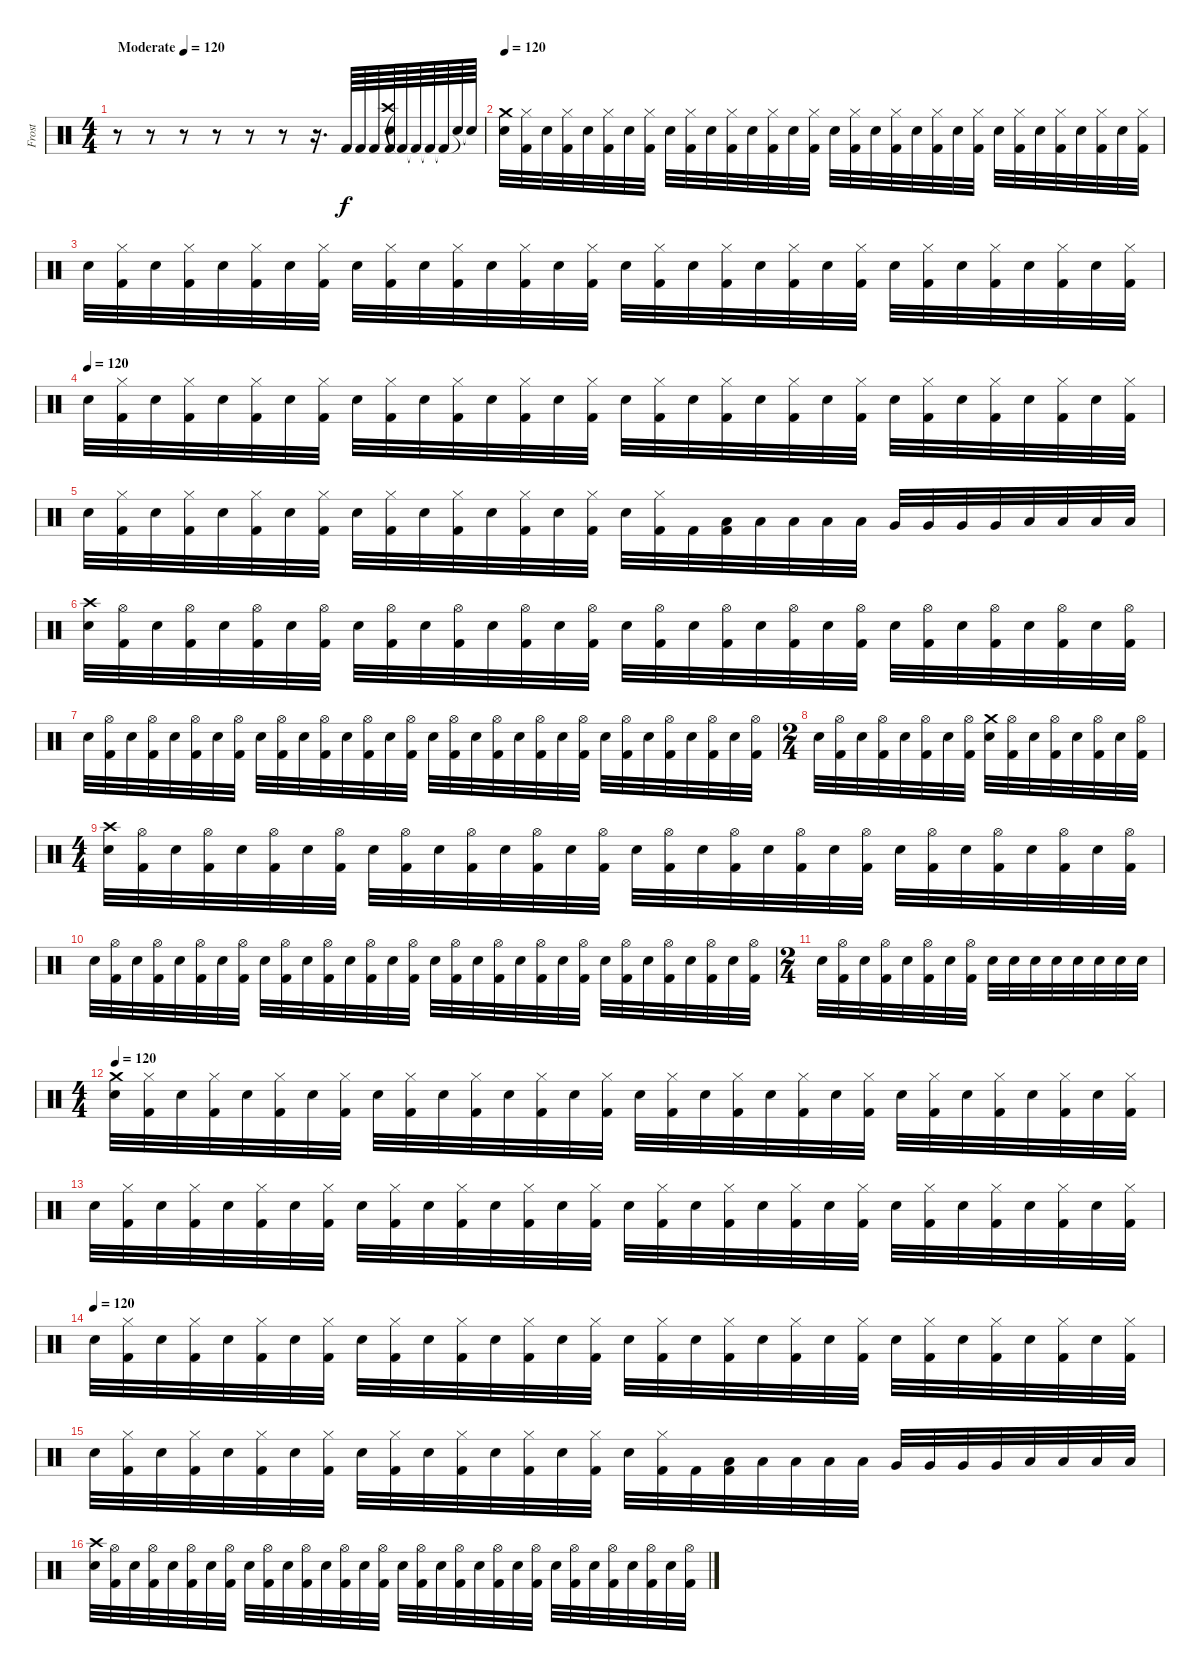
\track ("Frost" "Frost") {instrument percussion}
\staff {score}
\articulation defaults
\ts (4 4)
\tempo (120 "Moderate")
\tempo 50
\tempo (120 "Moderate")
\clef neutral
\ks c
r.8{dy f} r.8 r.8 r.8 r.8 r.8 r.16{d} "Kick (hit) 2".64 "Kick (hit) 2".64 "Kick (hit) 2".64 ("Crash high (hit)" "Snare (hit) 2" "Kick (hit) 2").64 "Kick (hit) 2"{t}.64 "Kick (hit) 2"{t}.64 "Kick (hit) 2"{t}.64 "Kick (hit) 2"{t}.64 "Snare (hit)"{t}.64 "Snare (hit)"{t}.64 |
\tempo 120
("Crash medium (hit)" "Snare (hit) 2").32 ("Hi-Hat (closed)" "Kick (hit) 2").32 "Snare (hit) 2".32 ("Hi-Hat (closed)" "Kick (hit) 2").32 "Snare (hit) 2".32 ("Hi-Hat (closed)" "Kick (hit) 2").32 "Snare (hit) 2".32 ("Hi-Hat (closed)" "Kick (hit) 2").32 "Snare (hit) 2".32 ("Hi-Hat (closed)" "Kick (hit) 2").32 "Snare (hit) 2".32 ("Hi-Hat (closed)" "Kick (hit) 2").32 "Snare (hit) 2".32 ("Hi-Hat (closed)" "Kick (hit) 2").32 "Snare (hit) 2".32 ("Hi-Hat (closed)" "Kick (hit) 2").32 "Snare (hit) 2".32 ("Hi-Hat (closed)" "Kick (hit) 2").32 "Snare (hit) 2".32 ("Hi-Hat (closed)" "Kick (hit) 2").32 "Snare (hit) 2".32 ("Hi-Hat (closed)" "Kick (hit) 2").32 "Snare (hit) 2".32 ("Hi-Hat (closed)" "Kick (hit) 2").32 "Snare (hit) 2".32 ("Hi-Hat (closed)" "Kick (hit) 2").32 "Snare (hit) 2".32 ("Hi-Hat (closed)" "Kick (hit) 2").32 "Snare (hit) 2".32 ("Hi-Hat (closed)" "Kick (hit) 2").32 "Snare (hit) 2".32 ("Hi-Hat (closed)" "Kick (hit) 2").32 |
"Snare (hit) 2".32 ("Hi-Hat (closed)" "Kick (hit) 2").32 "Snare (hit) 2".32 ("Hi-Hat (closed)" "Kick (hit) 2").32 "Snare (hit) 2".32 ("Hi-Hat (closed)" "Kick (hit) 2").32 "Snare (hit) 2".32 ("Hi-Hat (closed)" "Kick (hit) 2").32 "Snare (hit) 2".32 ("Hi-Hat (closed)" "Kick (hit) 2").32 "Snare (hit) 2".32 ("Hi-Hat (closed)" "Kick (hit) 2").32 "Snare (hit) 2".32 ("Hi-Hat (closed)" "Kick (hit) 2").32 "Snare (hit) 2".32 ("Hi-Hat (closed)" "Kick (hit) 2").32 "Snare (hit) 2".32 ("Hi-Hat (closed)" "Kick (hit) 2").32 "Snare (hit) 2".32 ("Hi-Hat (closed)" "Kick (hit) 2").32 "Snare (hit) 2".32 ("Hi-Hat (closed)" "Kick (hit) 2").32 "Snare (hit) 2".32 ("Hi-Hat (closed)" "Kick (hit) 2").32 "Snare (hit) 2".32 ("Hi-Hat (closed)" "Kick (hit) 2").32 "Snare (hit) 2".32 ("Hi-Hat (closed)" "Kick (hit) 2").32 "Snare (hit) 2".32 ("Hi-Hat (closed)" "Kick (hit) 2").32 "Snare (hit) 2".32 ("Hi-Hat (closed)" "Kick (hit) 2").32 |
\tempo (120)
"Snare (hit) 2".32 ("Hi-Hat (closed)" "Kick (hit) 2").32 "Snare (hit) 2".32 ("Hi-Hat (closed)" "Kick (hit) 2").32 "Snare (hit) 2".32 ("Hi-Hat (closed)" "Kick (hit) 2").32 "Snare (hit) 2".32 ("Hi-Hat (closed)" "Kick (hit) 2").32 "Snare (hit) 2".32 ("Hi-Hat (closed)" "Kick (hit) 2").32 "Snare (hit) 2".32 ("Hi-Hat (closed)" "Kick (hit) 2").32 "Snare (hit) 2".32 ("Hi-Hat (closed)" "Kick (hit) 2").32 "Snare (hit) 2".32 ("Hi-Hat (closed)" "Kick (hit) 2").32 "Snare (hit) 2".32 ("Hi-Hat (closed)" "Kick (hit) 2").32 "Snare (hit) 2".32 ("Hi-Hat (closed)" "Kick (hit) 2").32 "Snare (hit) 2".32 ("Hi-Hat (closed)" "Kick (hit) 2").32 "Snare (hit) 2".32 ("Hi-Hat (closed)" "Kick (hit) 2").32 "Snare (hit) 2".32 ("Hi-Hat (closed)" "Kick (hit) 2").32 "Snare (hit) 2".32 ("Hi-Hat (closed)" "Kick (hit) 2").32 "Snare (hit) 2".32 ("Hi-Hat (closed)" "Kick (hit) 2").32 "Snare (hit) 2".32 ("Hi-Hat (closed)" "Kick (hit) 2").32 |
"Snare (hit) 2".32 ("Hi-Hat (closed)" "Kick (hit) 2").32 "Snare (hit) 2".32 ("Hi-Hat (closed)" "Kick (hit) 2").32 "Snare (hit) 2".32 ("Hi-Hat (closed)" "Kick (hit) 2").32 "Snare (hit) 2".32 ("Hi-Hat (closed)" "Kick (hit) 2").32 "Snare (hit) 2".32 ("Hi-Hat (closed)" "Kick (hit) 2").32 "Snare (hit) 2".32 ("Hi-Hat (closed)" "Kick (hit) 2").32 "Snare (hit) 2".32 ("Hi-Hat (closed)" "Kick (hit) 2").32 "Snare (hit) 2".32 ("Hi-Hat (closed)" "Kick (hit) 2").32 "Snare (hit) 2".32 ("Hi-Hat (closed)" "Kick (hit) 2").32 "Kick (hit) 2".32 ("Low Tom (hit)" "Kick (hit) 2").32 "Low Tom (hit)".32 "Low Tom (hit)".32 "Low Tom (hit)".32 "Low Tom (hit)".32 "Very Low Tom (hit)".32 "Very Low Tom (hit)".32 "Very Low Tom (hit)".32 "Very Low Tom (hit)".32 "Low Floor Tom (hit)".32 "Low Floor Tom (hit)".32 "Low Floor Tom (hit)".32 "Low Floor Tom (hit)".32 |
("Crash high (hit)" "Snare (hit) 2").32 ("Hi-Hat (open)" "Kick (hit) 2").32 "Snare (hit) 2".32 ("Hi-Hat (open)" "Kick (hit) 2").32 "Snare (hit) 2".32 ("Hi-Hat (open)" "Kick (hit) 2").32 "Snare (hit) 2".32 ("Hi-Hat (open)" "Kick (hit) 2").32 "Snare (hit) 2".32 ("Hi-Hat (open)" "Kick (hit) 2").32 "Snare (hit) 2".32 ("Hi-Hat (open)" "Kick (hit) 2").32 "Snare (hit) 2".32 ("Hi-Hat (open)" "Kick (hit) 2").32 "Snare (hit) 2".32 ("Hi-Hat (open)" "Kick (hit) 2").32 "Snare (hit) 2".32 ("Hi-Hat (open)" "Kick (hit) 2").32 "Snare (hit) 2".32 ("Hi-Hat (open)" "Kick (hit) 2").32 "Snare (hit) 2".32 ("Hi-Hat (open)" "Kick (hit) 2").32 "Snare (hit) 2".32 ("Hi-Hat (open)" "Kick (hit) 2").32 "Snare (hit) 2".32 ("Hi-Hat (open)" "Kick (hit) 2").32 "Snare (hit) 2".32 ("Hi-Hat (open)" "Kick (hit) 2").32 "Snare (hit) 2".32 ("Hi-Hat (open)" "Kick (hit) 2").32 "Snare (hit) 2".32 ("Hi-Hat (open)" "Kick (hit) 2").32 |
"Snare (hit) 2".32 ("Hi-Hat (open)" "Kick (hit) 2").32 "Snare (hit) 2".32 ("Hi-Hat (open)" "Kick (hit) 2").32 "Snare (hit) 2".32 ("Hi-Hat (open)" "Kick (hit) 2").32 "Snare (hit) 2".32 ("Hi-Hat (open)" "Kick (hit) 2").32 "Snare (hit) 2".32 ("Hi-Hat (open)" "Kick (hit) 2").32 "Snare (hit) 2".32 ("Hi-Hat (open)" "Kick (hit) 2").32 "Snare (hit) 2".32 ("Hi-Hat (open)" "Kick (hit) 2").32 "Snare (hit) 2".32 ("Hi-Hat (open)" "Kick (hit) 2").32 "Snare (hit) 2".32 ("Hi-Hat (open)" "Kick (hit) 2").32 "Snare (hit) 2".32 ("Hi-Hat (open)" "Kick (hit) 2").32 "Snare (hit) 2".32 ("Hi-Hat (open)" "Kick (hit) 2").32 "Snare (hit) 2".32 ("Hi-Hat (open)" "Kick (hit) 2").32 "Snare (hit) 2".32 ("Hi-Hat (open)" "Kick (hit) 2").32 "Snare (hit) 2".32 ("Hi-Hat (open)" "Kick (hit) 2").32 "Snare (hit) 2".32 ("Hi-Hat (open)" "Kick (hit) 2").32 "Snare (hit) 2".32 ("Hi-Hat (open)" "Kick (hit) 2").32 |
\ts (2 4)
"Snare (hit) 2".32 ("Hi-Hat (open)" "Kick (hit) 2").32 "Snare (hit) 2".32 ("Hi-Hat (open)" "Kick (hit) 2").32 "Snare (hit) 2".32 ("Hi-Hat (open)" "Kick (hit) 2").32 "Snare (hit) 2".32 ("Hi-Hat (open)" "Kick (hit) 2").32 ("Crash medium (hit)" "Snare (hit) 2").32 ("Hi-Hat (open)" "Kick (hit) 2").32 "Snare (hit) 2".32 ("Hi-Hat (open)" "Kick (hit) 2").32 "Snare (hit) 2".32 ("Hi-Hat (open)" "Kick (hit) 2").32 "Snare (hit) 2".32 ("Hi-Hat (open)" "Kick (hit) 2").32 |
\ts (4 4)
("Crash high (hit)" "Snare (hit) 2").32 ("Hi-Hat (open)" "Kick (hit) 2").32 "Snare (hit) 2".32 ("Hi-Hat (open)" "Kick (hit) 2").32 "Snare (hit) 2".32 ("Hi-Hat (open)" "Kick (hit) 2").32 "Snare (hit) 2".32 ("Hi-Hat (open)" "Kick (hit) 2").32 "Snare (hit) 2".32 ("Hi-Hat (open)" "Kick (hit) 2").32 "Snare (hit) 2".32 ("Hi-Hat (open)" "Kick (hit) 2").32 "Snare (hit) 2".32 ("Hi-Hat (open)" "Kick (hit) 2").32 "Snare (hit) 2".32 ("Hi-Hat (open)" "Kick (hit) 2").32 "Snare (hit) 2".32 ("Hi-Hat (open)" "Kick (hit) 2").32 "Snare (hit) 2".32 ("Hi-Hat (open)" "Kick (hit) 2").32 "Snare (hit) 2".32 ("Hi-Hat (open)" "Kick (hit) 2").32 "Snare (hit) 2".32 ("Hi-Hat (open)" "Kick (hit) 2").32 "Snare (hit) 2".32 ("Hi-Hat (open)" "Kick (hit) 2").32 "Snare (hit) 2".32 ("Hi-Hat (open)" "Kick (hit) 2").32 "Snare (hit) 2".32 ("Hi-Hat (open)" "Kick (hit) 2").32 "Snare (hit) 2".32 ("Hi-Hat (open)" "Kick (hit) 2").32 |
"Snare (hit) 2".32 ("Hi-Hat (open)" "Kick (hit) 2").32 "Snare (hit) 2".32 ("Hi-Hat (open)" "Kick (hit) 2").32 "Snare (hit) 2".32 ("Hi-Hat (open)" "Kick (hit) 2").32 "Snare (hit) 2".32 ("Hi-Hat (open)" "Kick (hit) 2").32 "Snare (hit) 2".32 ("Hi-Hat (open)" "Kick (hit) 2").32 "Snare (hit) 2".32 ("Hi-Hat (open)" "Kick (hit) 2").32 "Snare (hit) 2".32 ("Hi-Hat (open)" "Kick (hit) 2").32 "Snare (hit) 2".32 ("Hi-Hat (open)" "Kick (hit) 2").32 "Snare (hit) 2".32 ("Hi-Hat (open)" "Kick (hit) 2").32 "Snare (hit) 2".32 ("Hi-Hat (open)" "Kick (hit) 2").32 "Snare (hit) 2".32 ("Hi-Hat (open)" "Kick (hit) 2").32 "Snare (hit) 2".32 ("Hi-Hat (open)" "Kick (hit) 2").32 "Snare (hit) 2".32 ("Hi-Hat (open)" "Kick (hit) 2").32 "Snare (hit) 2".32 ("Hi-Hat (open)" "Kick (hit) 2").32 "Snare (hit) 2".32 ("Hi-Hat (open)" "Kick (hit) 2").32 "Snare (hit) 2".32 ("Hi-Hat (open)" "Kick (hit) 2").32 |
\ts (2 4)
"Snare (hit) 2".32 ("Hi-Hat (open)" "Kick (hit) 2").32 "Snare (hit) 2".32 ("Hi-Hat (open)" "Kick (hit) 2").32 "Snare (hit) 2".32 ("Hi-Hat (open)" "Kick (hit) 2").32 "Snare (hit) 2".32 ("Hi-Hat (open)" "Kick (hit) 2").32 "Snare (hit) 2".32 "Snare (hit) 2".32 "Snare (hit) 2".32 "Snare (hit) 2".32 "Snare (hit) 2".32 "Snare (hit) 2".32 "Snare (hit) 2".32 "Snare (hit) 2".32 |
\ts (4 4)
\tempo 120
("Crash medium (hit)" "Snare (hit) 2").32 ("Hi-Hat (closed)" "Kick (hit) 2").32 "Snare (hit) 2".32 ("Hi-Hat (closed)" "Kick (hit) 2").32 "Snare (hit) 2".32 ("Hi-Hat (closed)" "Kick (hit) 2").32 "Snare (hit) 2".32 ("Hi-Hat (closed)" "Kick (hit) 2").32 "Snare (hit) 2".32 ("Hi-Hat (closed)" "Kick (hit) 2").32 "Snare (hit) 2".32 ("Hi-Hat (closed)" "Kick (hit) 2").32 "Snare (hit) 2".32 ("Hi-Hat (closed)" "Kick (hit) 2").32 "Snare (hit) 2".32 ("Hi-Hat (closed)" "Kick (hit) 2").32 "Snare (hit) 2".32 ("Hi-Hat (closed)" "Kick (hit) 2").32 "Snare (hit) 2".32 ("Hi-Hat (closed)" "Kick (hit) 2").32 "Snare (hit) 2".32 ("Hi-Hat (closed)" "Kick (hit) 2").32 "Snare (hit) 2".32 ("Hi-Hat (closed)" "Kick (hit) 2").32 "Snare (hit) 2".32 ("Hi-Hat (closed)" "Kick (hit) 2").32 "Snare (hit) 2".32 ("Hi-Hat (closed)" "Kick (hit) 2").32 "Snare (hit) 2".32 ("Hi-Hat (closed)" "Kick (hit) 2").32 "Snare (hit) 2".32 ("Hi-Hat (closed)" "Kick (hit) 2").32 |
"Snare (hit) 2".32 ("Hi-Hat (closed)" "Kick (hit) 2").32 "Snare (hit) 2".32 ("Hi-Hat (closed)" "Kick (hit) 2").32 "Snare (hit) 2".32 ("Hi-Hat (closed)" "Kick (hit) 2").32 "Snare (hit) 2".32 ("Hi-Hat (closed)" "Kick (hit) 2").32 "Snare (hit) 2".32 ("Hi-Hat (closed)" "Kick (hit) 2").32 "Snare (hit) 2".32 ("Hi-Hat (closed)" "Kick (hit) 2").32 "Snare (hit) 2".32 ("Hi-Hat (closed)" "Kick (hit) 2").32 "Snare (hit) 2".32 ("Hi-Hat (closed)" "Kick (hit) 2").32 "Snare (hit) 2".32 ("Hi-Hat (closed)" "Kick (hit) 2").32 "Snare (hit) 2".32 ("Hi-Hat (closed)" "Kick (hit) 2").32 "Snare (hit) 2".32 ("Hi-Hat (closed)" "Kick (hit) 2").32 "Snare (hit) 2".32 ("Hi-Hat (closed)" "Kick (hit) 2").32 "Snare (hit) 2".32 ("Hi-Hat (closed)" "Kick (hit) 2").32 "Snare (hit) 2".32 ("Hi-Hat (closed)" "Kick (hit) 2").32 "Snare (hit) 2".32 ("Hi-Hat (closed)" "Kick (hit) 2").32 "Snare (hit) 2".32 ("Hi-Hat (closed)" "Kick (hit) 2").32 |
\tempo (120)
"Snare (hit) 2".32 ("Hi-Hat (closed)" "Kick (hit) 2").32 "Snare (hit) 2".32 ("Hi-Hat (closed)" "Kick (hit) 2").32 "Snare (hit) 2".32 ("Hi-Hat (closed)" "Kick (hit) 2").32 "Snare (hit) 2".32 ("Hi-Hat (closed)" "Kick (hit) 2").32 "Snare (hit) 2".32 ("Hi-Hat (closed)" "Kick (hit) 2").32 "Snare (hit) 2".32 ("Hi-Hat (closed)" "Kick (hit) 2").32 "Snare (hit) 2".32 ("Hi-Hat (closed)" "Kick (hit) 2").32 "Snare (hit) 2".32 ("Hi-Hat (closed)" "Kick (hit) 2").32 "Snare (hit) 2".32 ("Hi-Hat (closed)" "Kick (hit) 2").32 "Snare (hit) 2".32 ("Hi-Hat (closed)" "Kick (hit) 2").32 "Snare (hit) 2".32 ("Hi-Hat (closed)" "Kick (hit) 2").32 "Snare (hit) 2".32 ("Hi-Hat (closed)" "Kick (hit) 2").32 "Snare (hit) 2".32 ("Hi-Hat (closed)" "Kick (hit) 2").32 "Snare (hit) 2".32 ("Hi-Hat (closed)" "Kick (hit) 2").32 "Snare (hit) 2".32 ("Hi-Hat (closed)" "Kick (hit) 2").32 "Snare (hit) 2".32 ("Hi-Hat (closed)" "Kick (hit) 2").32 |
"Snare (hit) 2".32 ("Hi-Hat (closed)" "Kick (hit) 2").32 "Snare (hit) 2".32 ("Hi-Hat (closed)" "Kick (hit) 2").32 "Snare (hit) 2".32 ("Hi-Hat (closed)" "Kick (hit) 2").32 "Snare (hit) 2".32 ("Hi-Hat (closed)" "Kick (hit) 2").32 "Snare (hit) 2".32 ("Hi-Hat (closed)" "Kick (hit) 2").32 "Snare (hit) 2".32 ("Hi-Hat (closed)" "Kick (hit) 2").32 "Snare (hit) 2".32 ("Hi-Hat (closed)" "Kick (hit) 2").32 "Snare (hit) 2".32 ("Hi-Hat (closed)" "Kick (hit) 2").32 "Snare (hit) 2".32 ("Hi-Hat (closed)" "Kick (hit) 2").32 "Kick (hit) 2".32 ("Low Tom (hit)" "Kick (hit) 2").32 "Low Tom (hit)".32 "Low Tom (hit)".32 "Low Tom (hit)".32 "Low Tom (hit)".32 "Very Low Tom (hit)".32 "Very Low Tom (hit)".32 "Very Low Tom (hit)".32 "Very Low Tom (hit)".32 "Low Floor Tom (hit)".32 "Low Floor Tom (hit)".32 "Low Floor Tom (hit)".32 "Low Floor Tom (hit)".32 |
("Crash high (hit)" "Snare (hit) 2").32 ("Hi-Hat (open)" "Kick (hit) 2").32 "Snare (hit) 2".32 ("Hi-Hat (open)" "Kick (hit) 2").32 "Snare (hit) 2".32 ("Hi-Hat (open)" "Kick (hit) 2").32 "Snare (hit) 2".32 ("Hi-Hat (open)" "Kick (hit) 2").32 "Snare (hit) 2".32 ("Hi-Hat (open)" "Kick (hit) 2").32 "Snare (hit) 2".32 ("Hi-Hat (open)" "Kick (hit) 2").32 "Snare (hit) 2".32 ("Hi-Hat (open)" "Kick (hit) 2").32 "Snare (hit) 2".32 ("Hi-Hat (open)" "Kick (hit) 2").32 "Snare (hit) 2".32 ("Hi-Hat (open)" "Kick (hit) 2").32 "Snare (hit) 2".32 ("Hi-Hat (open)" "Kick (hit) 2").32 "Snare (hit) 2".32 ("Hi-Hat (open)" "Kick (hit) 2").32 "Snare (hit) 2".32 ("Hi-Hat (open)" "Kick (hit) 2").32 "Snare (hit) 2".32 ("Hi-Hat (open)" "Kick (hit) 2").32 "Snare (hit) 2".32 ("Hi-Hat (open)" "Kick (hit) 2").32 "Snare (hit) 2".32 ("Hi-Hat (open)" "Kick (hit) 2").32 "Snare (hit) 2".32 ("Hi-Hat (open)" "Kick (hit) 2").32
